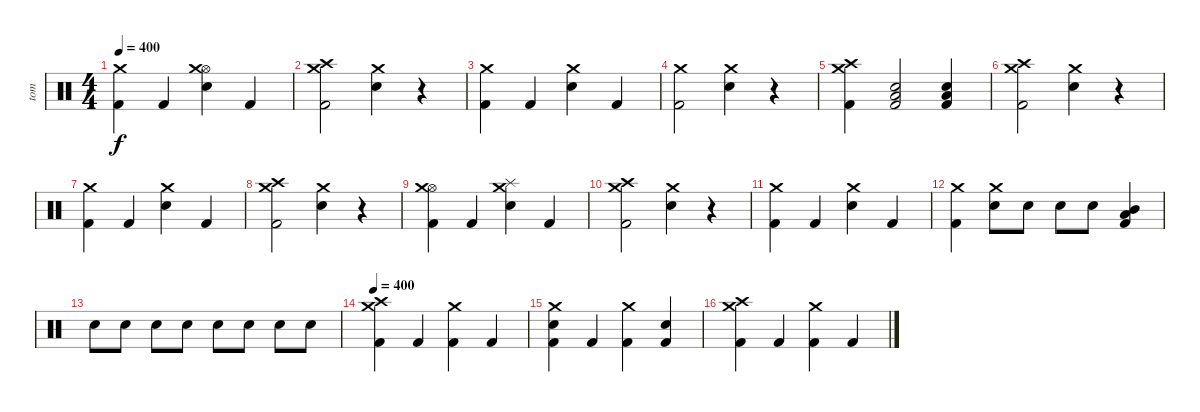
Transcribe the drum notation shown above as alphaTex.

\track ("tom" "tom") {instrument percussion}
\staff {score}
\articulation defaults
\ts (4 4)
\tempo 400
\clef neutral
\ks c
("Crash medium (hit)" "Kick (hit) 2").4{dy f} "Kick (hit) 2".4 ("Hi-Hat (open)" "Crash medium (hit)" "Electric Snare (hit)").4 "Kick (hit) 2".4 |
("Crash high (hit)" "Crash medium (hit)" "Kick (hit) 2").2 ("Crash medium (hit)" "Electric Snare (hit)").4 r.4 |
("Crash medium (hit)" "Kick (hit) 2").4 "Kick (hit) 2".4 ("Crash medium (hit)" "Electric Snare (hit)").4 "Kick (hit) 2".4 |
("Crash medium (hit)" "Kick (hit) 2").2 ("Crash medium (hit)" "Electric Snare (hit)").4 r.4 |
("Crash high (hit)" "Crash medium (hit)" "Kick (hit) 2").4 ("Low Tom (hit)" "Kick (hit) 2" "Electric Snare (hit)").2 ("Low Tom (hit)" "Kick (hit) 2" "Electric Snare (hit)").4 |
("Crash high (hit)" "Crash medium (hit)" "Kick (hit) 2").2 ("Crash medium (hit)" "Electric Snare (hit)").4 r.4 |
("Crash medium (hit)" "Kick (hit) 2").4 "Kick (hit) 2".4 ("Crash medium (hit)" "Electric Snare (hit)").4 "Kick (hit) 2".4 |
("Crash high (hit)" "Crash medium (hit)" "Kick (hit) 2").2 ("Crash medium (hit)" "Electric Snare (hit)").4 r.4 |
("Hi-Hat (open)" "Crash medium (hit)" "Kick (hit) 2").4 "Kick (hit) 2".4 ("Splash (hit)" "Crash medium (hit)" "Electric Snare (hit)").4 "Kick (hit) 2".4 |
("Crash high (hit)" "Crash medium (hit)" "Kick (hit) 2").2 ("Crash medium (hit)" "Electric Snare (hit)").4 r.4 |
("Crash medium (hit)" "Kick (hit) 2").4 "Kick (hit) 2".4 ("Crash medium (hit)" "Electric Snare (hit)").4 "Kick (hit) 2".4 |
("Crash medium (hit)" "Kick (hit) 2").4 ("Crash medium (hit)" "Electric Snare (hit)").8 "Electric Snare (hit)".8 "Electric Snare (hit)".8 "Electric Snare (hit)".8 ("Kick (hit) 2" "Low Tom (hit)" "Mid Tom (hit)").4 |
"Electric Snare (hit)".8 "Electric Snare (hit)".8 "Electric Snare (hit)".8 "Electric Snare (hit)".8 "Electric Snare (hit)".8 "Electric Snare (hit)".8 "Electric Snare (hit)".8 "Electric Snare (hit)".8 |
\tempo 400
("Crash high (hit)" "Crash medium (hit)" "Kick (hit) 2").4 "Kick (hit) 2".4 ("Crash medium (hit)" "Kick (hit) 2").4 "Kick (hit) 2".4 |
("Crash medium (hit)" "Electric Snare (hit)" "Kick (hit) 2").4 "Kick (hit) 2".4 ("Crash medium (hit)" "Kick (hit) 2").4 ("Electric Snare (hit)" "Kick (hit) 2").4 |
("Crash high (hit)" "Crash medium (hit)" "Kick (hit) 2").4 "Kick (hit) 2".4 ("Crash medium (hit)" "Kick (hit) 2").4 "Kick (hit) 2".4
